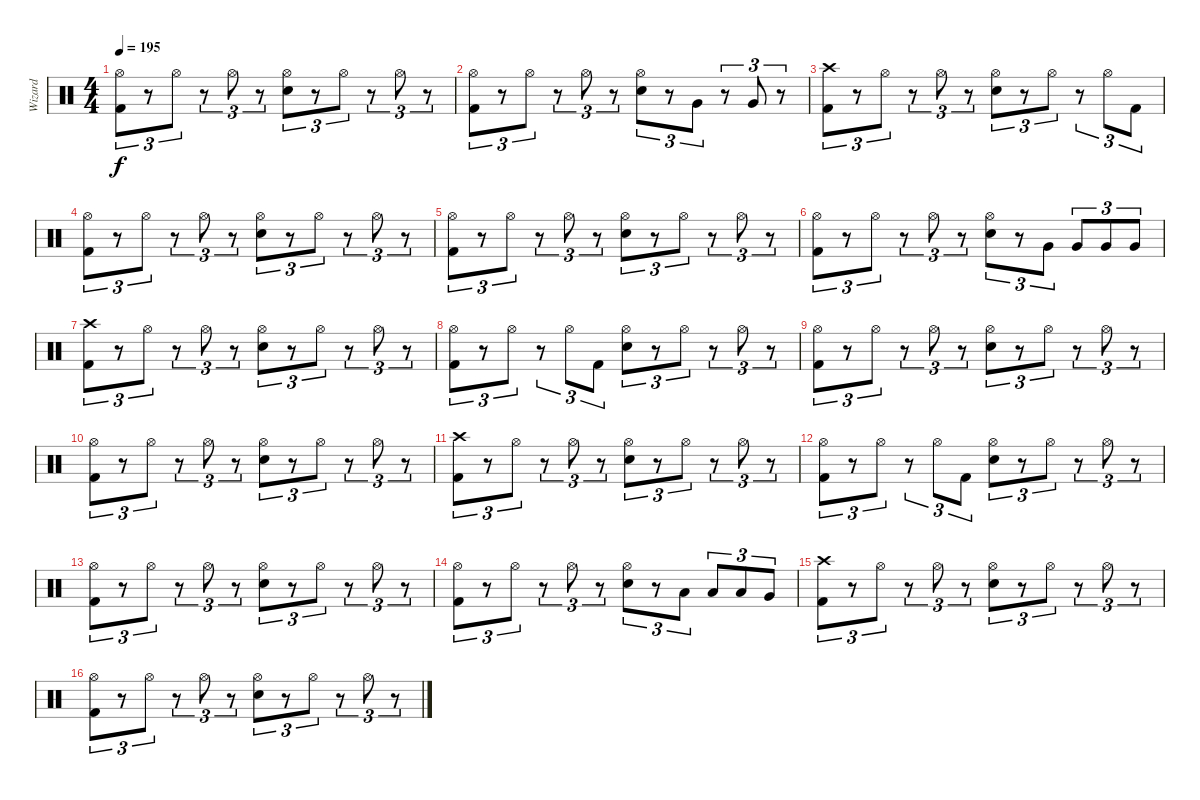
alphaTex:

\track ("Wizard" "Wizard") {instrument percussion}
\staff {score}
\articulation defaults
\ts (4 4)
\tempo 195
\clef neutral
\ks c
("Hi-Hat (open)" "Kick (hit) 2").8{tu (3 2) dy f} r.8{tu (3 2)} "Hi-Hat (open)".8{tu (3 2)} r.8{tu (3 2)} "Hi-Hat (open)".8{tu (3 2)} r.8{tu (3 2)} ("Hi-Hat (open)" "Snare (hit) 2").8{tu (3 2)} r.8{tu (3 2)} "Hi-Hat (open)".8{tu (3 2)} r.8{tu (3 2)} "Hi-Hat (open)".8{tu (3 2)} r.8{tu (3 2)} |
("Hi-Hat (open)" "Kick (hit) 2").8{tu (3 2)} r.8{tu (3 2)} "Hi-Hat (open)".8{tu (3 2)} r.8{tu (3 2)} "Hi-Hat (open)".8{tu (3 2)} r.8{tu (3 2)} ("Hi-Hat (open)" "Snare (hit) 2").8{tu (3 2)} r.8{tu (3 2)} "Very Low Tom (hit)".8{tu (3 2)} r.8{tu (3 2)} "Very Low Tom (hit)".8{tu (3 2)} r.8{tu (3 2)} |
("Crash high (hit)" "Kick (hit) 2").8{tu (3 2)} r.8{tu (3 2)} "Hi-Hat (open)".8{tu (3 2)} r.8{tu (3 2)} "Hi-Hat (open)".8{tu (3 2)} r.8{tu (3 2)} ("Hi-Hat (open)" "Snare (hit) 2").8{tu (3 2)} r.8{tu (3 2)} "Hi-Hat (open)".8{tu (3 2)} r.8{tu (3 2)} "Hi-Hat (open)".8{tu (3 2)} "Kick (hit) 2".8{tu (3 2)} |
("Hi-Hat (open)" "Kick (hit) 2").8{tu (3 2)} r.8{tu (3 2)} "Hi-Hat (open)".8{tu (3 2)} r.8{tu (3 2)} "Hi-Hat (open)".8{tu (3 2)} r.8{tu (3 2)} ("Hi-Hat (open)" "Snare (hit) 2").8{tu (3 2)} r.8{tu (3 2)} "Hi-Hat (open)".8{tu (3 2)} r.8{tu (3 2)} "Hi-Hat (open)".8{tu (3 2)} r.8{tu (3 2)} |
("Hi-Hat (open)" "Kick (hit) 2").8{tu (3 2)} r.8{tu (3 2)} "Hi-Hat (open)".8{tu (3 2)} r.8{tu (3 2)} "Hi-Hat (open)".8{tu (3 2)} r.8{tu (3 2)} ("Hi-Hat (open)" "Snare (hit) 2").8{tu (3 2)} r.8{tu (3 2)} "Hi-Hat (open)".8{tu (3 2)} r.8{tu (3 2)} "Hi-Hat (open)".8{tu (3 2)} r.8{tu (3 2)} |
("Hi-Hat (open)" "Kick (hit) 2").8{tu (3 2)} r.8{tu (3 2)} "Hi-Hat (open)".8{tu (3 2)} r.8{tu (3 2)} "Hi-Hat (open)".8{tu (3 2)} r.8{tu (3 2)} ("Hi-Hat (open)" "Snare (hit) 2").8{tu (3 2)} r.8{tu (3 2)} "Very Low Tom (hit)".8{tu (3 2)} "Very Low Tom (hit)".8{tu (3 2)} "Very Low Tom (hit)".8{tu (3 2)} "Very Low Tom (hit)".8{tu (3 2)} |
("Crash high (hit)" "Kick (hit) 2").8{tu (3 2)} r.8{tu (3 2)} "Hi-Hat (open)".8{tu (3 2)} r.8{tu (3 2)} "Hi-Hat (open)".8{tu (3 2)} r.8{tu (3 2)} ("Hi-Hat (open)" "Snare (hit) 2").8{tu (3 2)} r.8{tu (3 2)} "Hi-Hat (open)".8{tu (3 2)} r.8{tu (3 2)} "Hi-Hat (open)".8{tu (3 2)} r.8{tu (3 2)} |
("Hi-Hat (open)" "Kick (hit) 2").8{tu (3 2)} r.8{tu (3 2)} "Hi-Hat (open)".8{tu (3 2)} r.8{tu (3 2)} "Hi-Hat (open)".8{tu (3 2)} "Kick (hit) 2".8{tu (3 2)} ("Hi-Hat (open)" "Snare (hit) 2").8{tu (3 2)} r.8{tu (3 2)} "Hi-Hat (open)".8{tu (3 2)} r.8{tu (3 2)} "Hi-Hat (open)".8{tu (3 2)} r.8{tu (3 2)} |
("Hi-Hat (open)" "Kick (hit) 2").8{tu (3 2)} r.8{tu (3 2)} "Hi-Hat (open)".8{tu (3 2)} r.8{tu (3 2)} "Hi-Hat (open)".8{tu (3 2)} r.8{tu (3 2)} ("Hi-Hat (open)" "Snare (hit) 2").8{tu (3 2)} r.8{tu (3 2)} "Hi-Hat (open)".8{tu (3 2)} r.8{tu (3 2)} "Hi-Hat (open)".8{tu (3 2)} r.8{tu (3 2)} |
("Hi-Hat (open)" "Kick (hit) 2").8{tu (3 2)} r.8{tu (3 2)} "Hi-Hat (open)".8{tu (3 2)} r.8{tu (3 2)} "Hi-Hat (open)".8{tu (3 2)} r.8{tu (3 2)} ("Hi-Hat (open)" "Snare (hit) 2").8{tu (3 2)} r.8{tu (3 2)} "Hi-Hat (open)".8{tu (3 2)} r.8{tu (3 2)} "Hi-Hat (open)".8{tu (3 2)} r.8{tu (3 2)} |
("Crash high (hit)" "Kick (hit) 2").8{tu (3 2)} r.8{tu (3 2)} "Hi-Hat (open)".8{tu (3 2)} r.8{tu (3 2)} "Hi-Hat (open)".8{tu (3 2)} r.8{tu (3 2)} ("Hi-Hat (open)" "Snare (hit) 2").8{tu (3 2)} r.8{tu (3 2)} "Hi-Hat (open)".8{tu (3 2)} r.8{tu (3 2)} "Hi-Hat (open)".8{tu (3 2)} r.8{tu (3 2)} |
("Hi-Hat (open)" "Kick (hit) 2").8{tu (3 2)} r.8{tu (3 2)} "Hi-Hat (open)".8{tu (3 2)} r.8{tu (3 2)} "Hi-Hat (open)".8{tu (3 2)} "Kick (hit) 2".8{tu (3 2)} ("Hi-Hat (open)" "Snare (hit) 2").8{tu (3 2)} r.8{tu (3 2)} "Hi-Hat (open)".8{tu (3 2)} r.8{tu (3 2)} "Hi-Hat (open)".8{tu (3 2)} r.8{tu (3 2)} |
("Hi-Hat (open)" "Kick (hit) 2").8{tu (3 2)} r.8{tu (3 2)} "Hi-Hat (open)".8{tu (3 2)} r.8{tu (3 2)} "Hi-Hat (open)".8{tu (3 2)} r.8{tu (3 2)} ("Hi-Hat (open)" "Snare (hit) 2").8{tu (3 2)} r.8{tu (3 2)} "Hi-Hat (open)".8{tu (3 2)} r.8{tu (3 2)} "Hi-Hat (open)".8{tu (3 2)} r.8{tu (3 2)} |
("Hi-Hat (open)" "Kick (hit) 2").8{tu (3 2)} r.8{tu (3 2)} "Hi-Hat (open)".8{tu (3 2)} r.8{tu (3 2)} "Hi-Hat (open)".8{tu (3 2)} r.8{tu (3 2)} ("Hi-Hat (open)" "Snare (hit) 2").8{tu (3 2)} r.8{tu (3 2)} "Low Tom (hit)".8{tu (3 2)} "Low Tom (hit)".8{tu (3 2)} "Low Tom (hit)".8{tu (3 2)} "Very Low Tom (hit)".8{tu (3 2)} |
("Crash high (hit)" "Kick (hit) 2").8{tu (3 2)} r.8{tu (3 2)} "Hi-Hat (open)".8{tu (3 2)} r.8{tu (3 2)} "Hi-Hat (open)".8{tu (3 2)} r.8{tu (3 2)} ("Hi-Hat (open)" "Snare (hit) 2").8{tu (3 2)} r.8{tu (3 2)} "Hi-Hat (open)".8{tu (3 2)} r.8{tu (3 2)} "Hi-Hat (open)".8{tu (3 2)} r.8{tu (3 2)} |
("Hi-Hat (open)" "Kick (hit) 2").8{tu (3 2)} r.8{tu (3 2)} "Hi-Hat (open)".8{tu (3 2)} r.8{tu (3 2)} "Hi-Hat (open)".8{tu (3 2)} r.8{tu (3 2)} ("Hi-Hat (open)" "Snare (hit) 2").8{tu (3 2)} r.8{tu (3 2)} "Hi-Hat (open)".8{tu (3 2)} r.8{tu (3 2)} "Hi-Hat (open)".8{tu (3 2)} r.8{tu (3 2)}
